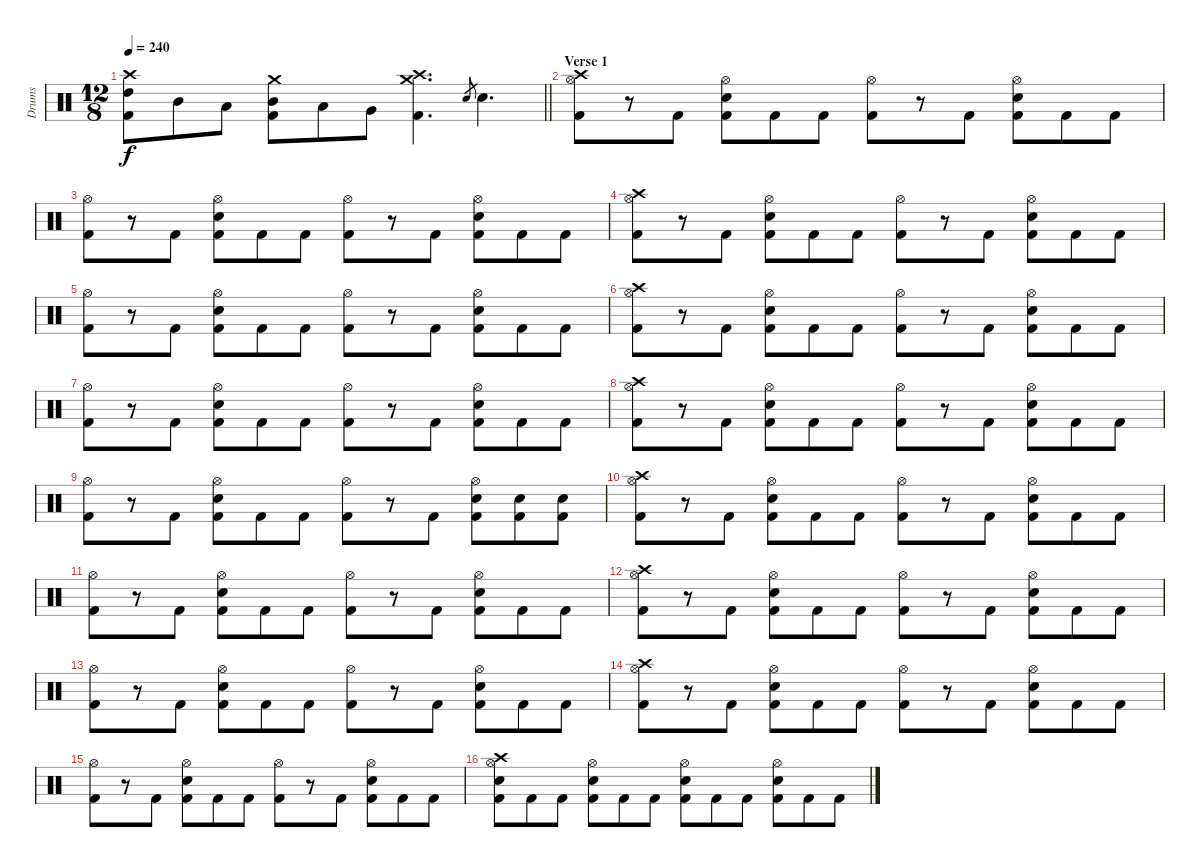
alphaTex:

\track ("Drums" "Drums") {instrument percussion}
\staff {score}
\articulation defaults
\ts (12 8)
\tempo 240
\clef neutral
\barLineRight lightlight
\ks c
("Crash high (hit)" "High Tom (hit)" "Kick (hit) 2").8{dy f} "Mid Tom (hit)".8 "Low Tom (hit)".8 ("Crash medium (hit)" "Mid Tom (hit)" "Kick (hit) 2").8 "Low Tom (hit)".8 "Very Low Tom (hit)".8 ("Crash high (hit)" "Crash medium (hit)" "Kick (hit) 2").4{d} "Snare (hit) 2".8{gr} "Snare (hit) 2".4{d} |
\section ("" "Verse 1")
("Crash high (hit)" "Hi-Hat (open)" "Kick (hit) 2").8 r.8 "Kick (hit) 2".8 ("Hi-Hat (open)" "Snare (hit) 2" "Kick (hit) 2").8 "Kick (hit) 2".8 "Kick (hit) 2".8 ("Hi-Hat (open)" "Kick (hit) 2").8 r.8 "Kick (hit) 2".8 ("Hi-Hat (open)" "Snare (hit) 2" "Kick (hit) 2").8 "Kick (hit) 2".8 "Kick (hit) 2".8 |
("Hi-Hat (open)" "Kick (hit) 2").8 r.8 "Kick (hit) 2".8 ("Hi-Hat (open)" "Snare (hit) 2" "Kick (hit) 2").8 "Kick (hit) 2".8 "Kick (hit) 2".8 ("Hi-Hat (open)" "Kick (hit) 2").8 r.8 "Kick (hit) 2".8 ("Hi-Hat (open)" "Snare (hit) 2" "Kick (hit) 2").8 "Kick (hit) 2".8 "Kick (hit) 2".8 |
("Crash high (hit)" "Hi-Hat (open)" "Kick (hit) 2").8 r.8 "Kick (hit) 2".8 ("Hi-Hat (open)" "Snare (hit) 2" "Kick (hit) 2").8 "Kick (hit) 2".8 "Kick (hit) 2".8 ("Hi-Hat (open)" "Kick (hit) 2").8 r.8 "Kick (hit) 2".8 ("Hi-Hat (open)" "Snare (hit) 2" "Kick (hit) 2").8 "Kick (hit) 2".8 "Kick (hit) 2".8 |
("Hi-Hat (open)" "Kick (hit) 2").8 r.8 "Kick (hit) 2".8 ("Hi-Hat (open)" "Snare (hit) 2" "Kick (hit) 2").8 "Kick (hit) 2".8 "Kick (hit) 2".8 ("Hi-Hat (open)" "Kick (hit) 2").8 r.8 "Kick (hit) 2".8 ("Hi-Hat (open)" "Snare (hit) 2" "Kick (hit) 2").8 "Kick (hit) 2".8 "Kick (hit) 2".8 |
("Crash high (hit)" "Hi-Hat (open)" "Kick (hit) 2").8 r.8 "Kick (hit) 2".8 ("Hi-Hat (open)" "Snare (hit) 2" "Kick (hit) 2").8 "Kick (hit) 2".8 "Kick (hit) 2".8 ("Hi-Hat (open)" "Kick (hit) 2").8 r.8 "Kick (hit) 2".8 ("Hi-Hat (open)" "Snare (hit) 2" "Kick (hit) 2").8 "Kick (hit) 2".8 "Kick (hit) 2".8 |
("Hi-Hat (open)" "Kick (hit) 2").8 r.8 "Kick (hit) 2".8 ("Hi-Hat (open)" "Snare (hit) 2" "Kick (hit) 2").8 "Kick (hit) 2".8 "Kick (hit) 2".8 ("Hi-Hat (open)" "Kick (hit) 2").8 r.8 "Kick (hit) 2".8 ("Hi-Hat (open)" "Snare (hit) 2" "Kick (hit) 2").8 "Kick (hit) 2".8 "Kick (hit) 2".8 |
("Crash high (hit)" "Hi-Hat (open)" "Kick (hit) 2").8 r.8 "Kick (hit) 2".8 ("Hi-Hat (open)" "Snare (hit) 2" "Kick (hit) 2").8 "Kick (hit) 2".8 "Kick (hit) 2".8 ("Hi-Hat (open)" "Kick (hit) 2").8 r.8 "Kick (hit) 2".8 ("Hi-Hat (open)" "Snare (hit) 2" "Kick (hit) 2").8 "Kick (hit) 2".8 "Kick (hit) 2".8 |
("Hi-Hat (open)" "Kick (hit) 2").8 r.8 "Kick (hit) 2".8 ("Hi-Hat (open)" "Snare (hit) 2" "Kick (hit) 2").8 "Kick (hit) 2".8 "Kick (hit) 2".8 ("Hi-Hat (open)" "Kick (hit) 2").8 r.8 "Kick (hit) 2".8 ("Hi-Hat (open)" "Snare (hit) 2" "Kick (hit) 2").8 ("Snare (hit) 2" "Kick (hit) 2").8 ("Snare (hit) 2" "Kick (hit) 2").8 |
("Crash high (hit)" "Hi-Hat (open)" "Kick (hit) 2").8 r.8 "Kick (hit) 2".8 ("Hi-Hat (open)" "Snare (hit) 2" "Kick (hit) 2").8 "Kick (hit) 2".8 "Kick (hit) 2".8 ("Hi-Hat (open)" "Kick (hit) 2").8 r.8 "Kick (hit) 2".8 ("Hi-Hat (open)" "Snare (hit) 2" "Kick (hit) 2").8 "Kick (hit) 2".8 "Kick (hit) 2".8 |
("Hi-Hat (open)" "Kick (hit) 2").8 r.8 "Kick (hit) 2".8 ("Hi-Hat (open)" "Snare (hit) 2" "Kick (hit) 2").8 "Kick (hit) 2".8 "Kick (hit) 2".8 ("Hi-Hat (open)" "Kick (hit) 2").8 r.8 "Kick (hit) 2".8 ("Hi-Hat (open)" "Snare (hit) 2" "Kick (hit) 2").8 "Kick (hit) 2".8 "Kick (hit) 2".8 |
("Crash high (hit)" "Hi-Hat (open)" "Kick (hit) 2").8 r.8 "Kick (hit) 2".8 ("Hi-Hat (open)" "Snare (hit) 2" "Kick (hit) 2").8 "Kick (hit) 2".8 "Kick (hit) 2".8 ("Hi-Hat (open)" "Kick (hit) 2").8 r.8 "Kick (hit) 2".8 ("Hi-Hat (open)" "Snare (hit) 2" "Kick (hit) 2").8 "Kick (hit) 2".8 "Kick (hit) 2".8 |
("Hi-Hat (open)" "Kick (hit) 2").8 r.8 "Kick (hit) 2".8 ("Hi-Hat (open)" "Snare (hit) 2" "Kick (hit) 2").8 "Kick (hit) 2".8 "Kick (hit) 2".8 ("Hi-Hat (open)" "Kick (hit) 2").8 r.8 "Kick (hit) 2".8 ("Hi-Hat (open)" "Snare (hit) 2" "Kick (hit) 2").8 "Kick (hit) 2".8 "Kick (hit) 2".8 |
("Crash high (hit)" "Hi-Hat (open)" "Kick (hit) 2").8 r.8 "Kick (hit) 2".8 ("Hi-Hat (open)" "Snare (hit) 2" "Kick (hit) 2").8 "Kick (hit) 2".8 "Kick (hit) 2".8 ("Hi-Hat (open)" "Kick (hit) 2").8 r.8 "Kick (hit) 2".8 ("Hi-Hat (open)" "Snare (hit) 2" "Kick (hit) 2").8 "Kick (hit) 2".8 "Kick (hit) 2".8 |
("Hi-Hat (open)" "Kick (hit) 2").8 r.8 "Kick (hit) 2".8 ("Hi-Hat (open)" "Snare (hit) 2" "Kick (hit) 2").8 "Kick (hit) 2".8 "Kick (hit) 2".8 ("Hi-Hat (open)" "Kick (hit) 2").8 r.8 "Kick (hit) 2".8 ("Hi-Hat (open)" "Snare (hit) 2" "Kick (hit) 2").8 "Kick (hit) 2".8 "Kick (hit) 2".8 |
("Crash high (hit)" "Hi-Hat (open)" "Snare (hit) 2" "Kick (hit) 2").8 "Kick (hit) 2".8 "Kick (hit) 2".8 ("Hi-Hat (open)" "Snare (hit) 2" "Kick (hit) 2").8 "Kick (hit) 2".8 "Kick (hit) 2".8 ("Hi-Hat (open)" "Snare (hit) 2" "Kick (hit) 2").8 "Kick (hit) 2".8 "Kick (hit) 2".8 ("Hi-Hat (open)" "Snare (hit) 2" "Kick (hit) 2").8 "Kick (hit) 2".8 "Kick (hit) 2".8
